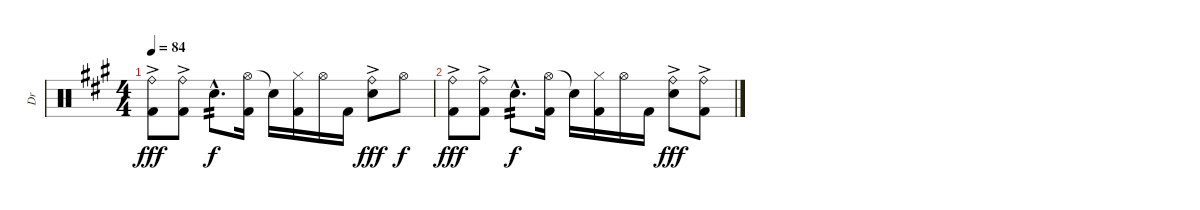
\track ("Dr" "Dr") {instrument percussion}
\staff {score}
\articulation defaults
\ts (4 4)
\tempo 84
\clef neutral
\ks a
("Ride (bell)"{ac} "Kick (hit) 2"{ac}).8{dy fff} ("Ride (bell)"{ac} "Kick (hit) 2"{ac}).8 "Electric Snare (hit)"{hac}.8{d tp 2 dy f} ("Hi-Hat (open)" "Kick (hit) 2").16 "Snare (hit)"{t}.16 ("Hi-Hat (closed)" "Kick (hit) 2").16 "Hi-Hat (open)".16 "Kick (hit) 2".16 ("Ride (bell)"{ac} "Electric Snare (hit)"{ac}).8{dy fff} "Hi-Hat (open)".8{dy f} |
("Ride (bell)"{ac} "Kick (hit) 2"{ac}).8{dy fff} ("Ride (bell)"{ac} "Kick (hit) 2"{ac}).8 "Electric Snare (hit)"{hac}.8{d tp 2 dy f} ("Hi-Hat (open)" "Kick (hit) 2").16 "Snare (hit)"{t}.16 ("Hi-Hat (closed)" "Kick (hit) 2").16 "Hi-Hat (open)".16 "Kick (hit) 2".16 ("Ride (bell)"{ac} "Electric Snare (hit)"{ac}).8{dy fff} ("Ride (bell)"{ac} "Kick (hit) 2"{ac}).8
